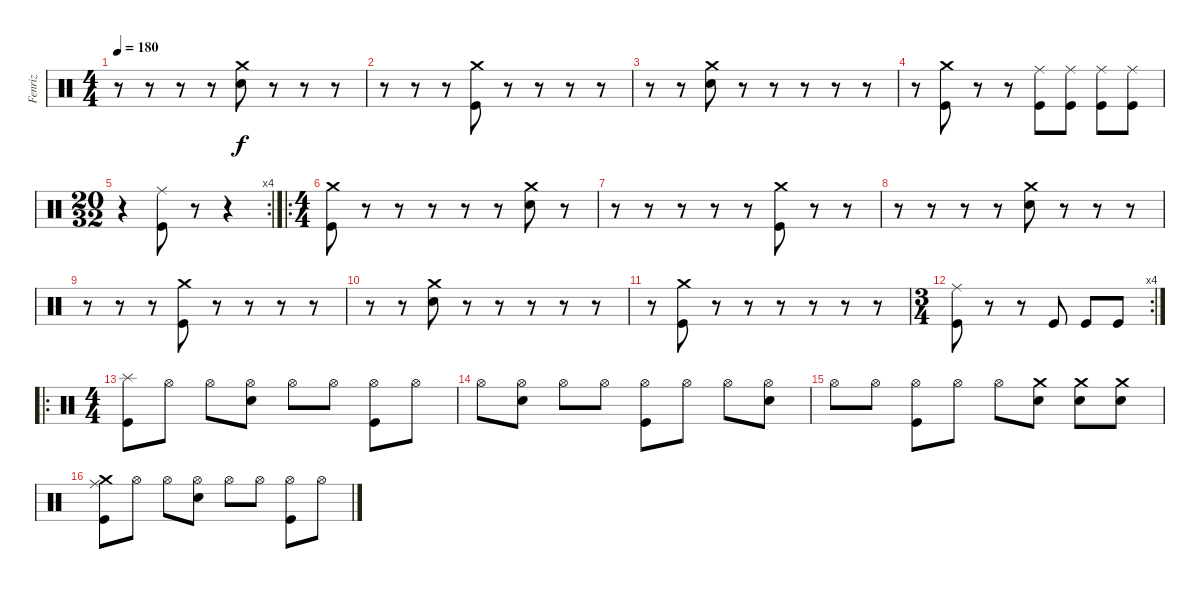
\track ("Fenriz" "Fenriz") {instrument percussion}
\staff {score}
\articulation defaults
\ts (4 4)
\tempo 180
\clef neutral
\ks c
r.8{dy f} r.8 r.8 r.8 ("Snare (hit) 2" "Crash medium (hit)").8 r.8 r.8 r.8 |
r.8 r.8 r.8 ("Kick (hit)" "Crash medium (hit)").8 r.8 r.8 r.8 r.8 |
r.8 r.8 ("Snare (hit) 2" "Crash medium (hit)").8 r.8 r.8 r.8 r.8 r.8 |
r.8 ("Kick (hit)" "Crash medium (hit)").8 r.8 r.8 ("Ride (middle)" "Kick (hit)").8 ("Ride (middle)" "Kick (hit)").8 ("Ride (middle)" "Kick (hit)").8 ("Ride (middle)" "Kick (hit)").8 |
\rc 4
\ts (20 32)
r.4 ("Ride (middle)" "Kick (hit)").8 r.8 r.4 |
\ro
\ts (4 4)
("Kick (hit)" "Crash medium (hit)").8 r.8 r.8 r.8 r.8 r.8 ("Snare (hit) 2" "Crash medium (hit)").8 r.8 |
r.8 r.8 r.8 r.8 r.8 ("Kick (hit)" "Crash medium (hit)").8 r.8 r.8 |
r.8 r.8 r.8 r.8 ("Snare (hit) 2" "Crash medium (hit)").8 r.8 r.8 r.8 |
r.8 r.8 r.8 ("Kick (hit)" "Crash medium (hit)").8 r.8 r.8 r.8 r.8 |
r.8 r.8 ("Snare (hit) 2" "Crash medium (hit)").8 r.8 r.8 r.8 r.8 r.8 |
r.8 ("Kick (hit)" "Crash medium (hit)").8 r.8 r.8 r.8 r.8 r.8 r.8 |
\rc 4
\ts (3 4)
("Kick (hit)" "Ride (middle)").8 r.8 r.8 "Kick (hit)".8 "Kick (hit)".8 "Kick (hit)".8 |
\ro
\ts (4 4)
("Splash (hit)" "Kick (hit)").8 "Hi-Hat (open)".8 "Hi-Hat (open)".8 ("Hi-Hat (open)" "Snare (hit) 2").8 "Hi-Hat (open)".8 "Hi-Hat (open)".8 ("Hi-Hat (open)" "Kick (hit)").8 "Hi-Hat (open)".8 |
"Hi-Hat (open)".8 ("Hi-Hat (open)" "Snare (hit) 2").8 "Hi-Hat (open)".8 "Hi-Hat (open)".8 ("Hi-Hat (open)" "Kick (hit)").8 "Hi-Hat (open)".8 "Hi-Hat (open)".8 ("Hi-Hat (open)" "Snare (hit) 2").8 |
"Hi-Hat (open)".8 "Hi-Hat (open)".8 ("Hi-Hat (open)" "Kick (hit)").8 "Hi-Hat (open)".8 "Hi-Hat (open)".8 ("Crash medium (hit)" "Snare (hit) 2").8 ("Crash medium (hit)" "Snare (hit) 2").8 ("Crash medium (hit)" "Snare (hit) 2").8 |
("Crash medium (hit)" "Ride (middle)" "Kick (hit)").8 "Hi-Hat (open)".8 "Hi-Hat (open)".8 ("Hi-Hat (open)" "Snare (hit) 2").8 "Hi-Hat (open)".8 "Hi-Hat (open)".8 ("Hi-Hat (open)" "Kick (hit)").8 "Hi-Hat (open)".8
